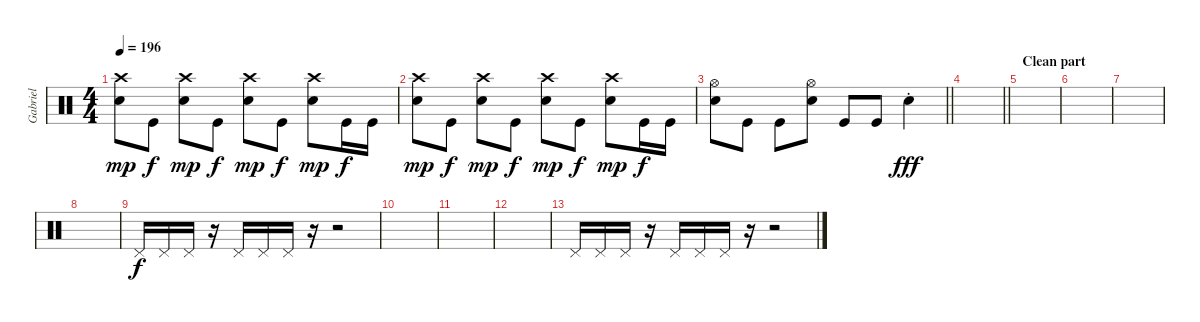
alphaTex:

\track ("Gabriel" "Gabriel") {instrument percussion}
\staff {score}
\articulation defaults
\ts (4 4)
\tempo 196
\clef neutral
\ks aminor
("Crash high (hit)" "Snare (hit) 2").8{dy mp} "Kick (hit)".8{dy f} ("Crash high (hit)" "Snare (hit) 2").8{dy mp} "Kick (hit)".8{dy f} ("Crash high (hit)" "Snare (hit) 2").8{dy mp} "Kick (hit)".8{dy f} ("Crash high (hit)" "Snare (hit) 2").8{dy mp} "Kick (hit)".16{dy f} "Kick (hit)".16 |
("Crash high (hit)" "Snare (hit) 2").8{dy mp} "Kick (hit)".8{dy f} ("Crash high (hit)" "Snare (hit) 2").8{dy mp} "Kick (hit)".8{dy f} ("Crash high (hit)" "Snare (hit) 2").8{dy mp} "Kick (hit)".8{dy f} ("Crash high (hit)" "Snare (hit) 2").8{dy mp} "Kick (hit)".16{dy f} "Kick (hit)".16 |
\barLineRight lightlight
("Hi-Hat (open)" "Snare (hit) 2").8 "Kick (hit)".8 "Kick (hit)".8 ("Hi-Hat (open)" "Snare (hit) 2").8 "Kick (hit)".8 "Kick (hit)".8 "Snare (hit) 2"{st}.4{dy fff} |
\barLineRight lightlight
|
\section ("" "Clean part")
|
|
|
|
"Pedal Hi-Hat (hit)".16{dy f} "Pedal Hi-Hat (hit)".16 "Pedal Hi-Hat (hit)".16 r.16 "Pedal Hi-Hat (hit)".16 "Pedal Hi-Hat (hit)".16 "Pedal Hi-Hat (hit)".16 r.16 r.2 |
|
|
|
"Pedal Hi-Hat (hit)".16 "Pedal Hi-Hat (hit)".16 "Pedal Hi-Hat (hit)".16 r.16 "Pedal Hi-Hat (hit)".16 "Pedal Hi-Hat (hit)".16 "Pedal Hi-Hat (hit)".16 r.16 r.2
